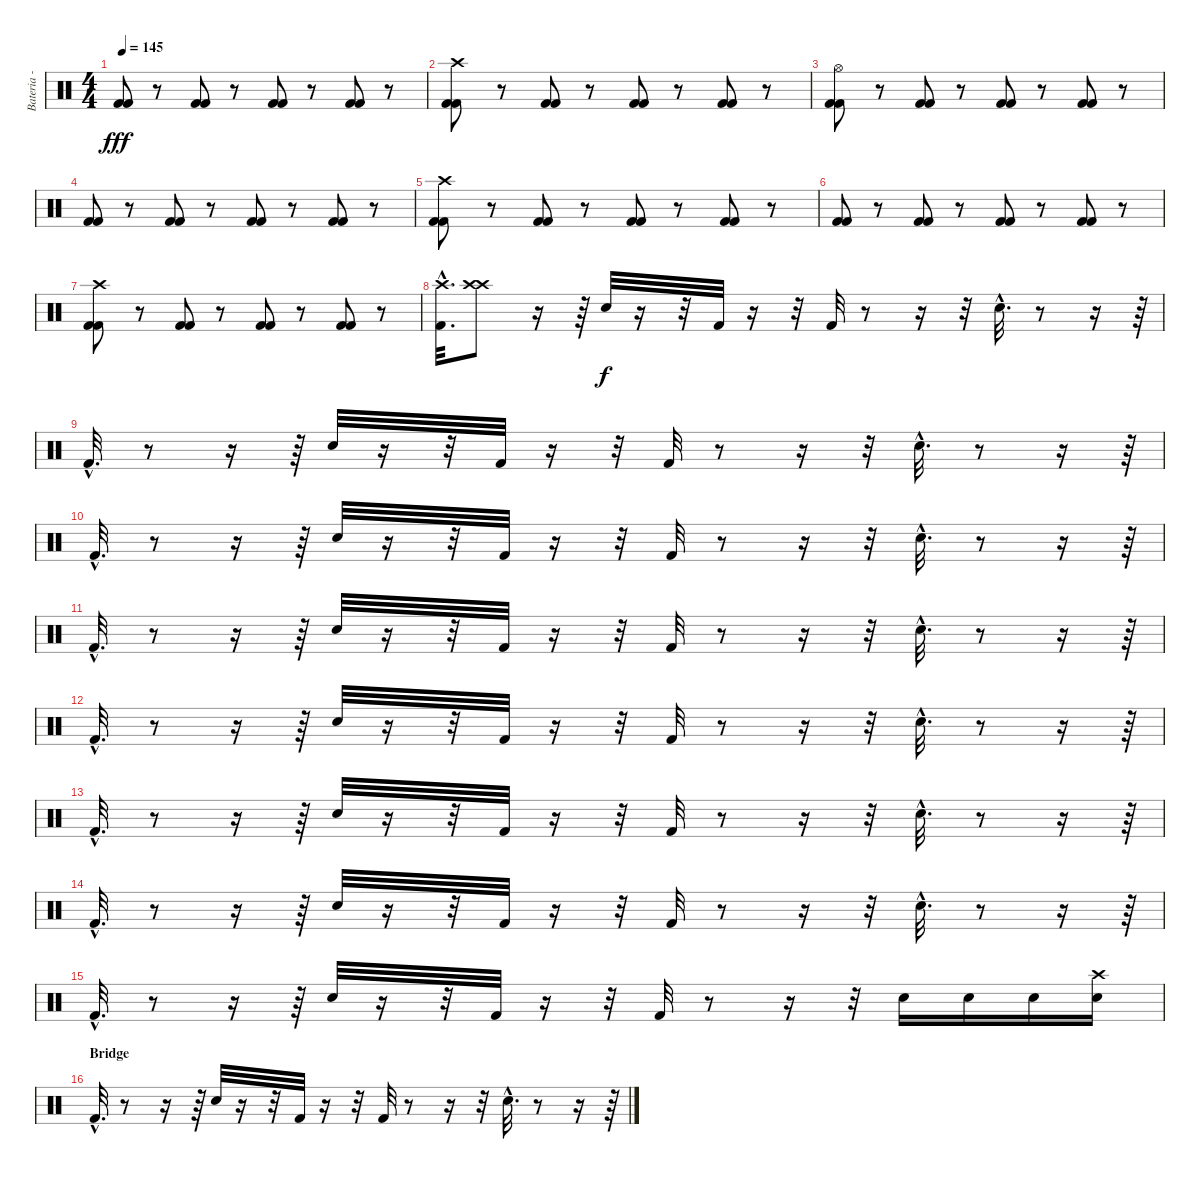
\track ("Bateria - Larzon" "Bateria - ") {instrument percussion}
\staff {score}
\articulation defaults
\ts (4 4)
\tempo 145
\clef neutral
\ks c
("Kick (hit) 2" "Kick (hit) 2").8{dy fff} r.8 ("Kick (hit) 2" "Kick (hit) 2").8 r.8 ("Kick (hit) 2" "Kick (hit) 2").8 r.8 ("Kick (hit) 2" "Kick (hit) 2").8 r.8 |
("Kick (hit) 2" "Kick (hit) 2" "Crash high (hit)").8 r.8 ("Kick (hit) 2" "Kick (hit) 2").8 r.8 ("Kick (hit) 2" "Kick (hit) 2").8 r.8 ("Kick (hit) 2" "Kick (hit) 2").8 r.8 |
("Kick (hit) 2" "Kick (hit) 2" "Hi-Hat (open)").8 r.8 ("Kick (hit) 2" "Kick (hit) 2").8 r.8 ("Kick (hit) 2" "Kick (hit) 2").8 r.8 ("Kick (hit) 2" "Kick (hit) 2").8 r.8 |
("Kick (hit) 2" "Kick (hit) 2").8 r.8 ("Kick (hit) 2" "Kick (hit) 2").8 r.8 ("Kick (hit) 2" "Kick (hit) 2").8 r.8 ("Kick (hit) 2" "Kick (hit) 2").8 r.8 |
("Kick (hit) 2" "Kick (hit) 2" "Crash high (hit)").8 r.8 ("Kick (hit) 2" "Kick (hit) 2").8 r.8 ("Kick (hit) 2" "Kick (hit) 2").8 r.8 ("Kick (hit) 2" "Kick (hit) 2").8 r.8 |
("Kick (hit) 2" "Kick (hit) 2").8 r.8 ("Kick (hit) 2" "Kick (hit) 2").8 r.8 ("Kick (hit) 2" "Kick (hit) 2").8 r.8 ("Kick (hit) 2" "Kick (hit) 2").8 r.8 |
("Kick (hit) 2" "Kick (hit) 2" "Crash high (hit)").8 r.8 ("Kick (hit) 2" "Kick (hit) 2").8 r.8 ("Kick (hit) 2" "Kick (hit) 2").8 r.8 ("Kick (hit) 2" "Kick (hit) 2").8 r.8 |
("Kick (hit) 2"{hac} "Crash high (hit)"{hac}).32{d} ("Crash high (hit)" "Crash high (hit)").8 r.16 r.64 "Snare (hit) 2".32{dy f} r.16 r.32 "Kick (hit) 2".32 r.16 r.32 "Kick (hit) 2".32 r.8 r.16 r.32 "Snare (hit) 2"{hac}.32{d} r.8 r.16 r.64 |
"Kick (hit) 2"{hac}.32{d} r.8 r.16 r.64 "Snare (hit) 2".32 r.16 r.32 "Kick (hit) 2".32 r.16 r.32 "Kick (hit) 2".32 r.8 r.16 r.32 "Snare (hit) 2"{hac}.32{d} r.8 r.16 r.64 |
"Kick (hit) 2"{hac}.32{d} r.8 r.16 r.64 "Snare (hit) 2".32 r.16 r.32 "Kick (hit) 2".32 r.16 r.32 "Kick (hit) 2".32 r.8 r.16 r.32 "Snare (hit) 2"{hac}.32{d} r.8 r.16 r.64 |
"Kick (hit) 2"{hac}.32{d} r.8 r.16 r.64 "Snare (hit) 2".32 r.16 r.32 "Kick (hit) 2".32 r.16 r.32 "Kick (hit) 2".32 r.8 r.16 r.32 "Snare (hit) 2"{hac}.32{d} r.8 r.16 r.64 |
"Kick (hit) 2"{hac}.32{d} r.8 r.16 r.64 "Snare (hit) 2".32 r.16 r.32 "Kick (hit) 2".32 r.16 r.32 "Kick (hit) 2".32 r.8 r.16 r.32 "Snare (hit) 2"{hac}.32{d} r.8 r.16 r.64 |
"Kick (hit) 2"{hac}.32{d} r.8 r.16 r.64 "Snare (hit) 2".32 r.16 r.32 "Kick (hit) 2".32 r.16 r.32 "Kick (hit) 2".32 r.8 r.16 r.32 "Snare (hit) 2"{hac}.32{d} r.8 r.16 r.64 |
"Kick (hit) 2"{hac}.32{d} r.8 r.16 r.64 "Snare (hit) 2".32 r.16 r.32 "Kick (hit) 2".32 r.16 r.32 "Kick (hit) 2".32 r.8 r.16 r.32 "Snare (hit) 2"{hac}.32{d} r.8 r.16 r.64 |
"Kick (hit) 2"{hac}.32{d} r.8 r.16 r.64 "Snare (hit) 2".32 r.16 r.32 "Kick (hit) 2".32 r.16 r.32 "Kick (hit) 2".32 r.8 r.16 r.32 "Snare (hit) 2".16 "Snare (hit) 2".16 "Snare (hit) 2".16 ("Snare (hit) 2" "Crash high (hit)").16 |
\section ("" "Bridge")
"Kick (hit) 2"{hac}.32{d} r.8 r.16 r.64 "Snare (hit) 2".32 r.16 r.32 "Kick (hit) 2".32 r.16 r.32 "Kick (hit) 2".32 r.8 r.16 r.32 "Snare (hit) 2"{hac}.32{d} r.8 r.16 r.64
